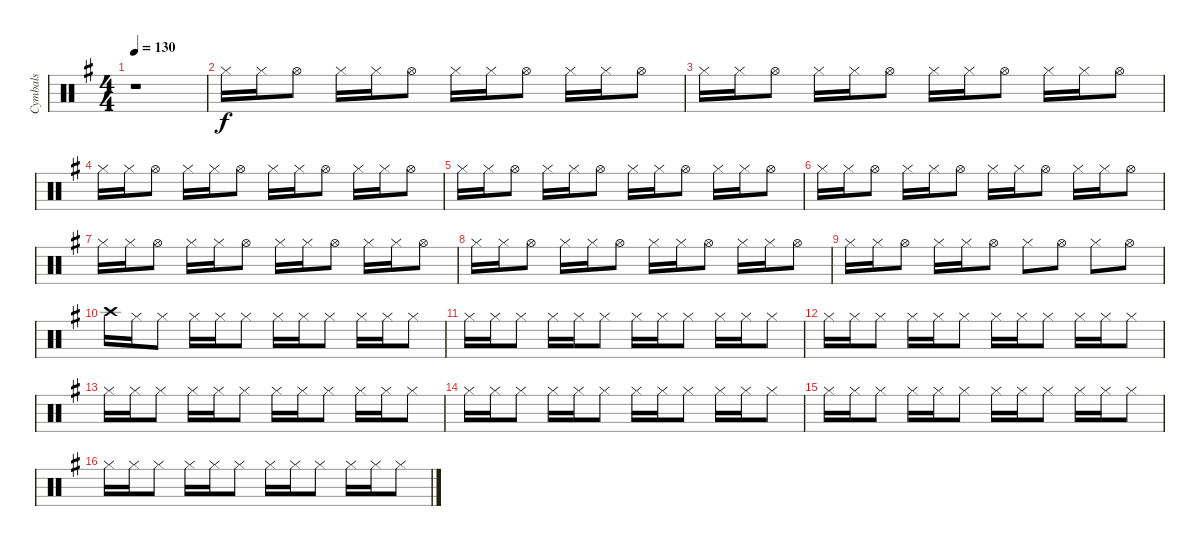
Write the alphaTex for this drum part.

\track ("Cymbals" "Cymbals") {instrument percussion}
\staff {score}
\articulation defaults
\ts (4 4)
\tempo 130
\clef neutral
\ks g
r.1{dy f} |
"Hi-Hat (closed)".16 "Hi-Hat (closed)".16 "Hi-Hat (open)".8 "Hi-Hat (closed)".16 "Hi-Hat (closed)".16 "Hi-Hat (open)".8 "Hi-Hat (closed)".16 "Hi-Hat (closed)".16 "Hi-Hat (open)".8 "Hi-Hat (closed)".16 "Hi-Hat (closed)".16 "Hi-Hat (open)".8 |
"Hi-Hat (closed)".16 "Hi-Hat (closed)".16 "Hi-Hat (open)".8 "Hi-Hat (closed)".16 "Hi-Hat (closed)".16 "Hi-Hat (open)".8 "Hi-Hat (closed)".16 "Hi-Hat (closed)".16 "Hi-Hat (open)".8 "Hi-Hat (closed)".16 "Hi-Hat (closed)".16 "Hi-Hat (open)".8 |
"Hi-Hat (closed)".16 "Hi-Hat (closed)".16 "Hi-Hat (open)".8 "Hi-Hat (closed)".16 "Hi-Hat (closed)".16 "Hi-Hat (open)".8 "Hi-Hat (closed)".16 "Hi-Hat (closed)".16 "Hi-Hat (open)".8 "Hi-Hat (closed)".16 "Hi-Hat (closed)".16 "Hi-Hat (open)".8 |
"Hi-Hat (closed)".16 "Hi-Hat (closed)".16 "Hi-Hat (open)".8 "Hi-Hat (closed)".16 "Hi-Hat (closed)".16 "Hi-Hat (open)".8 "Hi-Hat (closed)".16 "Hi-Hat (closed)".16 "Hi-Hat (open)".8 "Hi-Hat (closed)".16 "Hi-Hat (closed)".16 "Hi-Hat (open)".8 |
"Hi-Hat (closed)".16 "Hi-Hat (closed)".16 "Hi-Hat (open)".8 "Hi-Hat (closed)".16 "Hi-Hat (closed)".16 "Hi-Hat (open)".8 "Hi-Hat (closed)".16 "Hi-Hat (closed)".16 "Hi-Hat (open)".8 "Hi-Hat (closed)".16 "Hi-Hat (closed)".16 "Hi-Hat (open)".8 |
"Hi-Hat (closed)".16 "Hi-Hat (closed)".16 "Hi-Hat (open)".8 "Hi-Hat (closed)".16 "Hi-Hat (closed)".16 "Hi-Hat (open)".8 "Hi-Hat (closed)".16 "Hi-Hat (closed)".16 "Hi-Hat (open)".8 "Hi-Hat (closed)".16 "Hi-Hat (closed)".16 "Hi-Hat (open)".8 |
"Hi-Hat (closed)".16 "Hi-Hat (closed)".16 "Hi-Hat (open)".8 "Hi-Hat (closed)".16 "Hi-Hat (closed)".16 "Hi-Hat (open)".8 "Hi-Hat (closed)".16 "Hi-Hat (closed)".16 "Hi-Hat (open)".8 "Hi-Hat (closed)".16 "Hi-Hat (closed)".16 "Hi-Hat (open)".8 |
"Hi-Hat (closed)".16 "Hi-Hat (closed)".16 "Hi-Hat (open)".8 "Hi-Hat (closed)".16 "Hi-Hat (closed)".16 "Hi-Hat (open)".8 "Hi-Hat (closed)".8 "Hi-Hat (open)".8 "Hi-Hat (closed)".8 "Hi-Hat (open)".8 |
"Crash high (hit)".16 "Hi-Hat (closed)".16 "Hi-Hat (closed)".8 "Hi-Hat (closed)".16 "Hi-Hat (closed)".16 "Hi-Hat (closed)".8 "Hi-Hat (closed)".16 "Hi-Hat (closed)".16 "Hi-Hat (closed)".8 "Hi-Hat (closed)".16 "Hi-Hat (closed)".16 "Hi-Hat (closed)".8 |
"Hi-Hat (closed)".16 "Hi-Hat (closed)".16 "Hi-Hat (closed)".8 "Hi-Hat (closed)".16 "Hi-Hat (closed)".16 "Hi-Hat (closed)".8 "Hi-Hat (closed)".16 "Hi-Hat (closed)".16 "Hi-Hat (closed)".8 "Hi-Hat (closed)".16 "Hi-Hat (closed)".16 "Hi-Hat (closed)".8 |
"Hi-Hat (closed)".16 "Hi-Hat (closed)".16 "Hi-Hat (closed)".8 "Hi-Hat (closed)".16 "Hi-Hat (closed)".16 "Hi-Hat (closed)".8 "Hi-Hat (closed)".16 "Hi-Hat (closed)".16 "Hi-Hat (closed)".8 "Hi-Hat (closed)".16 "Hi-Hat (closed)".16 "Hi-Hat (closed)".8 |
"Hi-Hat (closed)".16 "Hi-Hat (closed)".16 "Hi-Hat (closed)".8 "Hi-Hat (closed)".16 "Hi-Hat (closed)".16 "Hi-Hat (closed)".8 "Hi-Hat (closed)".16 "Hi-Hat (closed)".16 "Hi-Hat (closed)".8 "Hi-Hat (closed)".16 "Hi-Hat (closed)".16 "Hi-Hat (closed)".8 |
"Hi-Hat (closed)".16 "Hi-Hat (closed)".16 "Hi-Hat (closed)".8 "Hi-Hat (closed)".16 "Hi-Hat (closed)".16 "Hi-Hat (closed)".8 "Hi-Hat (closed)".16 "Hi-Hat (closed)".16 "Hi-Hat (closed)".8 "Hi-Hat (closed)".16 "Hi-Hat (closed)".16 "Hi-Hat (closed)".8 |
"Hi-Hat (closed)".16 "Hi-Hat (closed)".16 "Hi-Hat (closed)".8 "Hi-Hat (closed)".16 "Hi-Hat (closed)".16 "Hi-Hat (closed)".8 "Hi-Hat (closed)".16 "Hi-Hat (closed)".16 "Hi-Hat (closed)".8 "Hi-Hat (closed)".16 "Hi-Hat (closed)".16 "Hi-Hat (closed)".8 |
"Hi-Hat (closed)".16 "Hi-Hat (closed)".16 "Hi-Hat (closed)".8 "Hi-Hat (closed)".16 "Hi-Hat (closed)".16 "Hi-Hat (closed)".8 "Hi-Hat (closed)".16 "Hi-Hat (closed)".16 "Hi-Hat (closed)".8 "Hi-Hat (closed)".16 "Hi-Hat (closed)".16 "Hi-Hat (closed)".8
